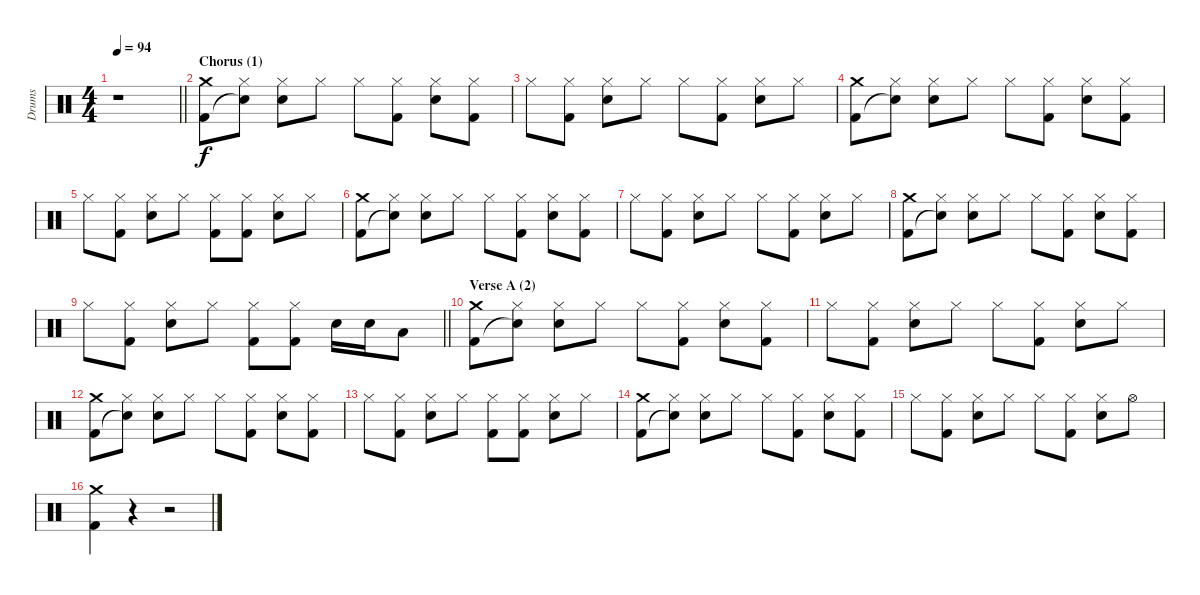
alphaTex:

\track ("Drums" "Drums") {instrument percussion}
\staff {score}
\articulation defaults
\ts (4 4)
\tempo 94
\clef neutral
\barLineRight lightlight
\ks aminor
r.1{dy f} |
\section ("" "Chorus (1)")
("Crash medium (hit)" "Kick (hit) 2").8 ("Hi-Hat (closed)" "Snare (hit)"{t}).8 ("Hi-Hat (closed)" "Electric Snare (hit)").8 "Hi-Hat (closed)".8 "Hi-Hat (closed)".8 ("Hi-Hat (closed)" "Kick (hit) 2").8 ("Hi-Hat (closed)" "Electric Snare (hit)").8 ("Hi-Hat (closed)" "Kick (hit) 2").8 |
"Hi-Hat (closed)".8 ("Hi-Hat (closed)" "Kick (hit) 2").8 ("Hi-Hat (closed)" "Electric Snare (hit)").8 "Hi-Hat (closed)".8 "Hi-Hat (closed)".8 ("Hi-Hat (closed)" "Kick (hit) 2").8 ("Hi-Hat (closed)" "Electric Snare (hit)").8 "Hi-Hat (closed)".8 |
("Crash medium (hit)" "Kick (hit) 2").8 ("Hi-Hat (closed)" "Snare (hit)"{t}).8 ("Hi-Hat (closed)" "Electric Snare (hit)").8 "Hi-Hat (closed)".8 "Hi-Hat (closed)".8 ("Hi-Hat (closed)" "Kick (hit) 2").8 ("Hi-Hat (closed)" "Electric Snare (hit)").8 ("Hi-Hat (closed)" "Kick (hit) 2").8 |
"Hi-Hat (closed)".8 ("Hi-Hat (closed)" "Kick (hit) 2").8 ("Hi-Hat (closed)" "Electric Snare (hit)").8 "Hi-Hat (closed)".8 ("Hi-Hat (closed)" "Kick (hit) 2").8 ("Hi-Hat (closed)" "Kick (hit) 2").8 ("Hi-Hat (closed)" "Electric Snare (hit)").8 "Hi-Hat (closed)".8 |
("Crash medium (hit)" "Kick (hit) 2").8 ("Hi-Hat (closed)" "Snare (hit)"{t}).8 ("Hi-Hat (closed)" "Electric Snare (hit)").8 "Hi-Hat (closed)".8 "Hi-Hat (closed)".8 ("Hi-Hat (closed)" "Kick (hit) 2").8 ("Hi-Hat (closed)" "Electric Snare (hit)").8 ("Hi-Hat (closed)" "Kick (hit) 2").8 |
"Hi-Hat (closed)".8 ("Hi-Hat (closed)" "Kick (hit) 2").8 ("Hi-Hat (closed)" "Electric Snare (hit)").8 "Hi-Hat (closed)".8 "Hi-Hat (closed)".8 ("Hi-Hat (closed)" "Kick (hit) 2").8 ("Hi-Hat (closed)" "Electric Snare (hit)").8 "Hi-Hat (closed)".8 |
("Crash medium (hit)" "Kick (hit) 2").8 ("Hi-Hat (closed)" "Snare (hit)"{t}).8 ("Hi-Hat (closed)" "Electric Snare (hit)").8 "Hi-Hat (closed)".8 "Hi-Hat (closed)".8 ("Hi-Hat (closed)" "Kick (hit) 2").8 ("Hi-Hat (closed)" "Electric Snare (hit)").8 ("Hi-Hat (closed)" "Kick (hit) 2").8 |
\barLineRight lightlight "Hi-Hat (closed)".8
("Hi-Hat (closed)" "Kick (hit) 2").8 ("Hi-Hat (closed)" "Electric Snare (hit)").8 "Hi-Hat (closed)".8 ("Hi-Hat (closed)" "Kick (hit) 2").8 ("Hi-Hat (closed)" "Kick (hit) 2").8 "Electric Snare (hit)".16 "Electric Snare (hit)".16 "Low Tom (hit)".8 |
\section ("" "Verse A (2)")
("Crash medium (hit)" "Kick (hit) 2").8 ("Hi-Hat (closed)" "Snare (hit)"{t}).8 ("Hi-Hat (closed)" "Electric Snare (hit)").8 "Hi-Hat (closed)".8 "Hi-Hat (closed)".8 ("Hi-Hat (closed)" "Kick (hit) 2").8 ("Hi-Hat (closed)" "Electric Snare (hit)").8 ("Hi-Hat (closed)" "Kick (hit) 2").8 |
"Hi-Hat (closed)".8 ("Hi-Hat (closed)" "Kick (hit) 2").8 ("Hi-Hat (closed)" "Electric Snare (hit)").8 "Hi-Hat (closed)".8 "Hi-Hat (closed)".8 ("Hi-Hat (closed)" "Kick (hit) 2").8 ("Hi-Hat (closed)" "Electric Snare (hit)").8 "Hi-Hat (closed)".8 |
("Crash medium (hit)" "Kick (hit) 2").8 ("Hi-Hat (closed)" "Snare (hit)"{t}).8 ("Hi-Hat (closed)" "Electric Snare (hit)").8 "Hi-Hat (closed)".8 "Hi-Hat (closed)".8 ("Hi-Hat (closed)" "Kick (hit) 2").8 ("Hi-Hat (closed)" "Electric Snare (hit)").8 ("Hi-Hat (closed)" "Kick (hit) 2").8 |
"Hi-Hat (closed)".8 ("Hi-Hat (closed)" "Kick (hit) 2").8 ("Hi-Hat (closed)" "Electric Snare (hit)").8 "Hi-Hat (closed)".8 ("Hi-Hat (closed)" "Kick (hit) 2").8 ("Hi-Hat (closed)" "Kick (hit) 2").8 ("Hi-Hat (closed)" "Electric Snare (hit)").8 "Hi-Hat (closed)".8 |
("Crash medium (hit)" "Kick (hit) 2").8 ("Hi-Hat (closed)" "Snare (hit)"{t}).8 ("Hi-Hat (closed)" "Electric Snare (hit)").8 "Hi-Hat (closed)".8 "Hi-Hat (closed)".8 ("Hi-Hat (closed)" "Kick (hit) 2").8 ("Hi-Hat (closed)" "Electric Snare (hit)").8 ("Hi-Hat (closed)" "Kick (hit) 2").8 |
"Hi-Hat (closed)".8 ("Hi-Hat (closed)" "Kick (hit) 2").8 ("Hi-Hat (closed)" "Electric Snare (hit)").8 "Hi-Hat (closed)".8 "Hi-Hat (closed)".8 ("Hi-Hat (closed)" "Kick (hit) 2").8 ("Hi-Hat (closed)" "Electric Snare (hit)").8 "Hi-Hat (open)".8 |
("Crash medium (hit)" "Kick (hit) 2").4 r.4 r.2
